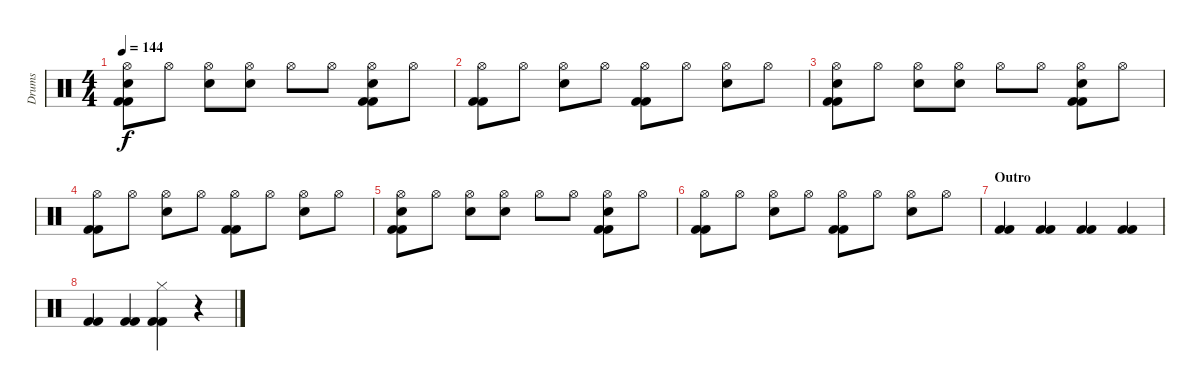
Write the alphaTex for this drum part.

\track ("Drums" "Drums") {instrument percussion}
\staff {score}
\articulation defaults
\ts (4 4)
\tempo 144
\clef neutral
\ks c
("Kick (hit) 2" "Kick (hit) 2" "Snare (hit) 2" "Hi-Hat (open)").8{dy f} "Hi-Hat (open)".8 ("Snare (hit) 2" "Hi-Hat (open)").8 ("Snare (hit) 2" "Hi-Hat (open)").8 "Hi-Hat (open)".8 "Hi-Hat (open)".8 ("Kick (hit) 2" "Kick (hit) 2" "Snare (hit) 2" "Hi-Hat (open)").8 "Hi-Hat (open)".8 |
("Kick (hit) 2" "Kick (hit) 2" "Hi-Hat (open)").8 "Hi-Hat (open)".8 ("Snare (hit) 2" "Hi-Hat (open)").8 "Hi-Hat (open)".8 ("Kick (hit) 2" "Kick (hit) 2" "Hi-Hat (open)").8 "Hi-Hat (open)".8 ("Snare (hit) 2" "Hi-Hat (open)").8 "Hi-Hat (open)".8 |
("Kick (hit) 2" "Kick (hit) 2" "Snare (hit) 2" "Hi-Hat (open)").8 "Hi-Hat (open)".8 ("Snare (hit) 2" "Hi-Hat (open)").8 ("Snare (hit) 2" "Hi-Hat (open)").8 "Hi-Hat (open)".8 "Hi-Hat (open)".8 ("Kick (hit) 2" "Kick (hit) 2" "Snare (hit) 2" "Hi-Hat (open)").8 "Hi-Hat (open)".8 |
("Kick (hit) 2" "Kick (hit) 2" "Hi-Hat (open)").8 "Hi-Hat (open)".8 ("Snare (hit) 2" "Hi-Hat (open)").8 "Hi-Hat (open)".8 ("Kick (hit) 2" "Kick (hit) 2" "Hi-Hat (open)").8 "Hi-Hat (open)".8 ("Snare (hit) 2" "Hi-Hat (open)").8 "Hi-Hat (open)".8 |
("Kick (hit) 2" "Kick (hit) 2" "Snare (hit) 2" "Hi-Hat (open)").8 "Hi-Hat (open)".8 ("Snare (hit) 2" "Hi-Hat (open)").8 ("Snare (hit) 2" "Hi-Hat (open)").8 "Hi-Hat (open)".8 "Hi-Hat (open)".8 ("Kick (hit) 2" "Kick (hit) 2" "Snare (hit) 2" "Hi-Hat (open)").8 "Hi-Hat (open)".8 |
("Kick (hit) 2" "Kick (hit) 2" "Hi-Hat (open)").8 "Hi-Hat (open)".8 ("Snare (hit) 2" "Hi-Hat (open)").8 "Hi-Hat (open)".8 ("Kick (hit) 2" "Kick (hit) 2" "Hi-Hat (open)").8 "Hi-Hat (open)".8 ("Snare (hit) 2" "Hi-Hat (open)").8 "Hi-Hat (open)".8 |
\section ("" "Outro")
("Kick (hit) 2" "Kick (hit) 2").4 ("Kick (hit) 2" "Kick (hit) 2").4 ("Kick (hit) 2" "Kick (hit) 2").4 ("Kick (hit) 2" "Kick (hit) 2").4 |
("Kick (hit) 2" "Kick (hit) 2").4 ("Kick (hit) 2" "Kick (hit) 2").4 ("Kick (hit) 2" "Kick (hit) 2" "Hi-Hat (closed)").4 r.4
